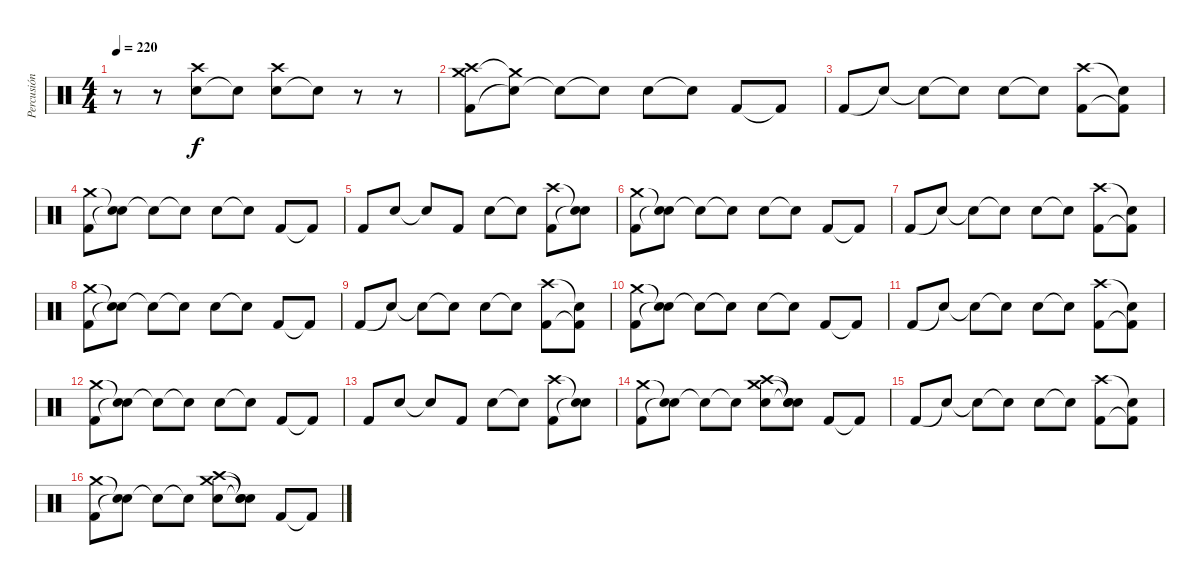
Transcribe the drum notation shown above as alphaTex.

\track ("Percusión" "Percusión") {instrument percussion}
\staff {score}
\articulation defaults
\ts (4 4)
\tempo 220
\clef neutral
\ks c
r.8{dy f} r.8 ("Snare (hit) 2" "Crash high (hit)").8 "Snare (hit) 2"{t}.8 ("Snare (hit) 2" "Crash high (hit)").8 "Snare (hit)"{t}.8 r.8 r.8 |
("Kick (hit) 2" "Crash medium (hit)" "Crash high (hit)").8 ("Snare (hit)"{t} "Crash medium (hit)"{t}).8 "Snare (hit)"{t}.8 "Snare (hit)"{t}.8 "Snare (hit) 2".8 "Snare (hit)"{t}.8 "Kick (hit) 2".8 "Kick (hit) 2"{t}.8 |
"Kick (hit) 2".8 "Snare (hit)"{t}.8 "Snare (hit)"{t}.8 "Snare (hit)"{t}.8 "Snare (hit) 2".8 "Snare (hit)"{t}.8 ("Kick (hit) 2" "Crash high (hit)").8 ("Kick (hit) 2"{t} "Snare (hit)"{t}).8 |
("Kick (hit) 2" "Crash medium (hit)").8 ("Snare (hit)"{t} "Snare (hit)"{t}).8 "Snare (hit)"{t}.8 "Snare (hit)"{t}.8 "Snare (hit) 2".8 "Snare (hit)"{t}.8 "Kick (hit) 2".8 "Kick (hit) 2"{t}.8 |
"Kick (hit) 2".8 "Snare (hit) 2".8 "Snare (hit)"{t}.8 "Kick (hit) 2".8 "Snare (hit) 2".8 "Snare (hit)"{t}.8 ("Kick (hit) 2" "Crash high (hit)").8 ("Snare (hit)"{t} "Snare (hit)"{t}).8 |
("Kick (hit) 2" "Crash medium (hit)").8 ("Snare (hit)"{t} "Snare (hit)"{t}).8 "Snare (hit)"{t}.8 "Snare (hit)"{t}.8 "Snare (hit) 2".8 "Snare (hit)"{t}.8 "Kick (hit) 2".8 "Kick (hit) 2"{t}.8 |
"Kick (hit) 2".8 "Snare (hit)"{t}.8 "Snare (hit)"{t}.8 "Snare (hit)"{t}.8 "Snare (hit) 2".8 "Snare (hit)"{t}.8 ("Kick (hit) 2" "Crash high (hit)").8 ("Kick (hit) 2"{t} "Snare (hit)"{t}).8 |
("Kick (hit) 2" "Crash medium (hit)").8 ("Snare (hit)"{t} "Snare (hit)"{t}).8 "Snare (hit)"{t}.8 "Snare (hit)"{t}.8 "Snare (hit) 2".8 "Snare (hit)"{t}.8 "Kick (hit) 2".8 "Kick (hit) 2"{t}.8 |
"Kick (hit) 2".8 "Snare (hit)"{t}.8 "Snare (hit)"{t}.8 "Snare (hit)"{t}.8 "Snare (hit) 2".8 "Snare (hit)"{t}.8 ("Kick (hit) 2" "Crash high (hit)").8 ("Kick (hit) 2"{t} "Snare (hit)"{t}).8 |
("Kick (hit) 2" "Crash medium (hit)").8 ("Snare (hit)"{t} "Snare (hit)"{t}).8 "Snare (hit)"{t}.8 "Snare (hit)"{t}.8 "Snare (hit) 2".8 "Snare (hit)"{t}.8 "Kick (hit) 2".8 "Kick (hit) 2"{t}.8 |
"Kick (hit) 2".8 "Snare (hit)"{t}.8 "Snare (hit)"{t}.8 "Snare (hit)"{t}.8 "Snare (hit) 2".8 "Snare (hit)"{t}.8 ("Kick (hit) 2" "Crash high (hit)").8 ("Kick (hit) 2"{t} "Snare (hit)"{t}).8 |
("Kick (hit) 2" "Crash medium (hit)").8 ("Snare (hit)"{t} "Snare (hit)"{t}).8 "Snare (hit)"{t}.8 "Snare (hit)"{t}.8 "Snare (hit) 2".8 "Snare (hit)"{t}.8 "Kick (hit) 2".8 "Kick (hit) 2"{t}.8 |
"Kick (hit) 2".8 "Snare (hit) 2".8 "Snare (hit)"{t}.8 "Kick (hit) 2".8 "Snare (hit) 2".8 "Snare (hit)"{t}.8 ("Kick (hit) 2" "Crash high (hit)").8 ("Snare (hit)"{t} "Snare (hit)"{t}).8 |
("Kick (hit) 2" "Crash medium (hit)").8 ("Snare (hit)"{t} "Snare (hit)"{t}).8 "Snare (hit)"{t}.8 "Snare (hit)"{t}.8 ("Snare (hit) 2" "Crash high (hit)" "Crash medium (hit)").8 ("Snare (hit)"{t} "Snare (hit)"{t} "Snare (hit)"{t}).8 "Kick (hit) 2".8 "Kick (hit) 2"{t}.8 |
"Kick (hit) 2".8 "Snare (hit)"{t}.8 "Snare (hit)"{t}.8 "Snare (hit)"{t}.8 "Snare (hit) 2".8 "Snare (hit)"{t}.8 ("Kick (hit) 2" "Crash high (hit)").8 ("Kick (hit) 2"{t} "Snare (hit)"{t}).8 |
("Kick (hit) 2" "Crash medium (hit)").8 ("Snare (hit)"{t} "Snare (hit)"{t}).8 "Snare (hit)"{t}.8 "Snare (hit)"{t}.8 ("Snare (hit) 2" "Crash high (hit)" "Crash medium (hit)").8 ("Snare (hit)"{t} "Snare (hit)"{t} "Snare (hit)"{t}).8 "Kick (hit) 2".8 "Kick (hit) 2"{t}.8
